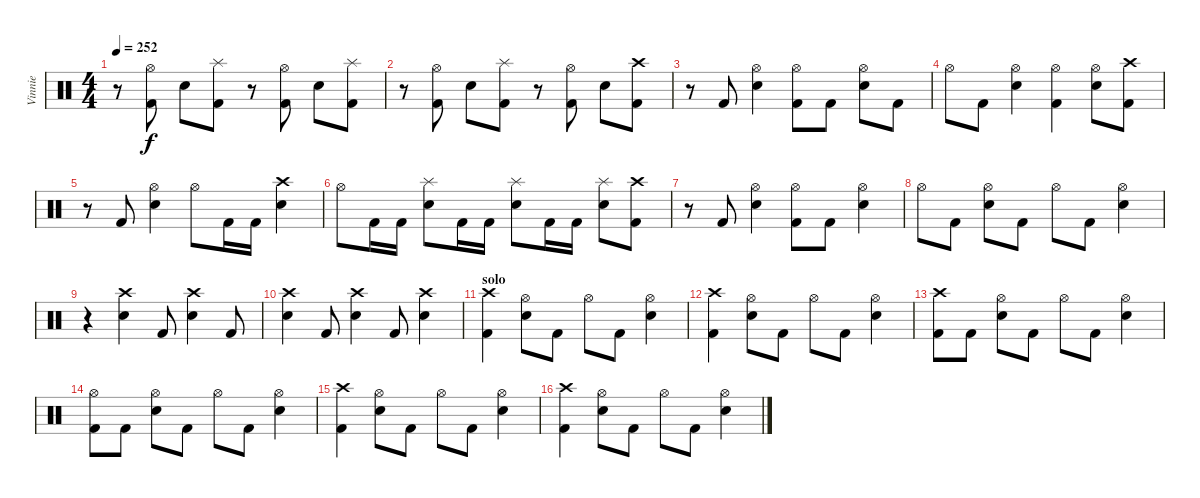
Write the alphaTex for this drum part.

\track ("Vinnie" "Vinnie") {instrument percussion}
\staff {score}
\articulation defaults
\ts (4 4)
\tempo 252
\clef neutral
\ks c
r.8{dy f} ("Hi-Hat (open)" "Kick (hit) 2").8 "Snare (hit) 2".8 ("Splash (hit)" "Kick (hit) 2").8 r.8 ("Hi-Hat (open)" "Kick (hit) 2").8 "Snare (hit) 2".8 ("Splash (hit)" "Kick (hit) 2").8 |
r.8 ("Hi-Hat (open)" "Kick (hit) 2").8 "Snare (hit) 2".8 ("Splash (hit)" "Kick (hit) 2").8 r.8 ("Hi-Hat (open)" "Kick (hit) 2").8 "Snare (hit) 2".8 ("Crash high (hit)" "Kick (hit) 2").8 |
r.8 "Kick (hit) 2".8 ("Hi-Hat (open)" "Snare (hit) 2").4 ("Hi-Hat (open)" "Kick (hit) 2").8 "Kick (hit) 2".8 ("Hi-Hat (open)" "Snare (hit) 2").8 "Kick (hit) 2".8 |
"Hi-Hat (open)".8 "Kick (hit) 2".8 ("Hi-Hat (open)" "Snare (hit) 2").4 ("Hi-Hat (open)" "Kick (hit) 2").4 ("Hi-Hat (open)" "Snare (hit) 2").8 ("Crash high (hit)" "Kick (hit) 2").8 |
r.8 "Kick (hit) 2".8 ("Hi-Hat (open)" "Snare (hit) 2").4 "Hi-Hat (open)".8 "Kick (hit) 2".16 "Kick (hit) 2".16 ("Crash high (hit)" "Snare (hit) 2").4 |
"Hi-Hat (open)".8 "Kick (hit) 2".16 "Kick (hit) 2".16 ("Splash (hit)" "Snare (hit) 2").8 "Kick (hit) 2".16 "Kick (hit) 2".16 ("Splash (hit)" "Snare (hit) 2").8 "Kick (hit) 2".16 "Kick (hit) 2".16 ("Splash (hit)" "Snare (hit) 2").8 ("Crash high (hit)" "Kick (hit) 2").8 |
r.8 "Kick (hit) 2".8 ("Hi-Hat (open)" "Snare (hit) 2").4 ("Hi-Hat (open)" "Kick (hit) 2").8 "Kick (hit) 2".8 ("Hi-Hat (open)" "Snare (hit) 2").4 |
"Hi-Hat (open)".8 "Kick (hit) 2".8 ("Hi-Hat (open)" "Snare (hit) 2").8 "Kick (hit) 2".8 "Hi-Hat (open)".8 "Kick (hit) 2".8 ("Hi-Hat (open)" "Snare (hit) 2").4 |
r.4 ("Crash high (hit)" "Snare (hit) 2").4 "Kick (hit) 2".8 ("Crash high (hit)" "Snare (hit) 2").4 "Kick (hit) 2".8 |
("Crash high (hit)" "Snare (hit) 2").4 "Kick (hit) 2".8 ("Crash high (hit)" "Snare (hit) 2").4 "Kick (hit) 2".8 ("Crash high (hit)" "Snare (hit) 2").4 |
\section ("" "solo")
("Crash high (hit)" "Kick (hit) 2").4 ("Hi-Hat (open)" "Snare (hit) 2").8 "Kick (hit) 2".8 "Hi-Hat (open)".8 "Kick (hit) 2".8 ("Hi-Hat (open)" "Snare (hit) 2").4 |
("Crash high (hit)" "Kick (hit) 2").4 ("Hi-Hat (open)" "Snare (hit) 2").8 "Kick (hit) 2".8 "Hi-Hat (open)".8 "Kick (hit) 2".8 ("Hi-Hat (open)" "Snare (hit) 2").4 |
("Crash high (hit)" "Kick (hit) 2").8 "Kick (hit) 2".8 ("Hi-Hat (open)" "Snare (hit) 2").8 "Kick (hit) 2".8 "Hi-Hat (open)".8 "Kick (hit) 2".8 ("Hi-Hat (open)" "Snare (hit) 2").4 |
("Hi-Hat (open)" "Kick (hit) 2").8 "Kick (hit) 2".8 ("Hi-Hat (open)" "Snare (hit) 2").8 "Kick (hit) 2".8 "Hi-Hat (open)".8 "Kick (hit) 2".8 ("Hi-Hat (open)" "Snare (hit) 2").4 |
("Crash high (hit)" "Kick (hit) 2").4 ("Hi-Hat (open)" "Snare (hit) 2").8 "Kick (hit) 2".8 "Hi-Hat (open)".8 "Kick (hit) 2".8 ("Hi-Hat (open)" "Snare (hit) 2").4 |
("Crash high (hit)" "Kick (hit) 2").4 ("Hi-Hat (open)" "Snare (hit) 2").8 "Kick (hit) 2".8 "Hi-Hat (open)".8 "Kick (hit) 2".8 ("Hi-Hat (open)" "Snare (hit) 2").4
